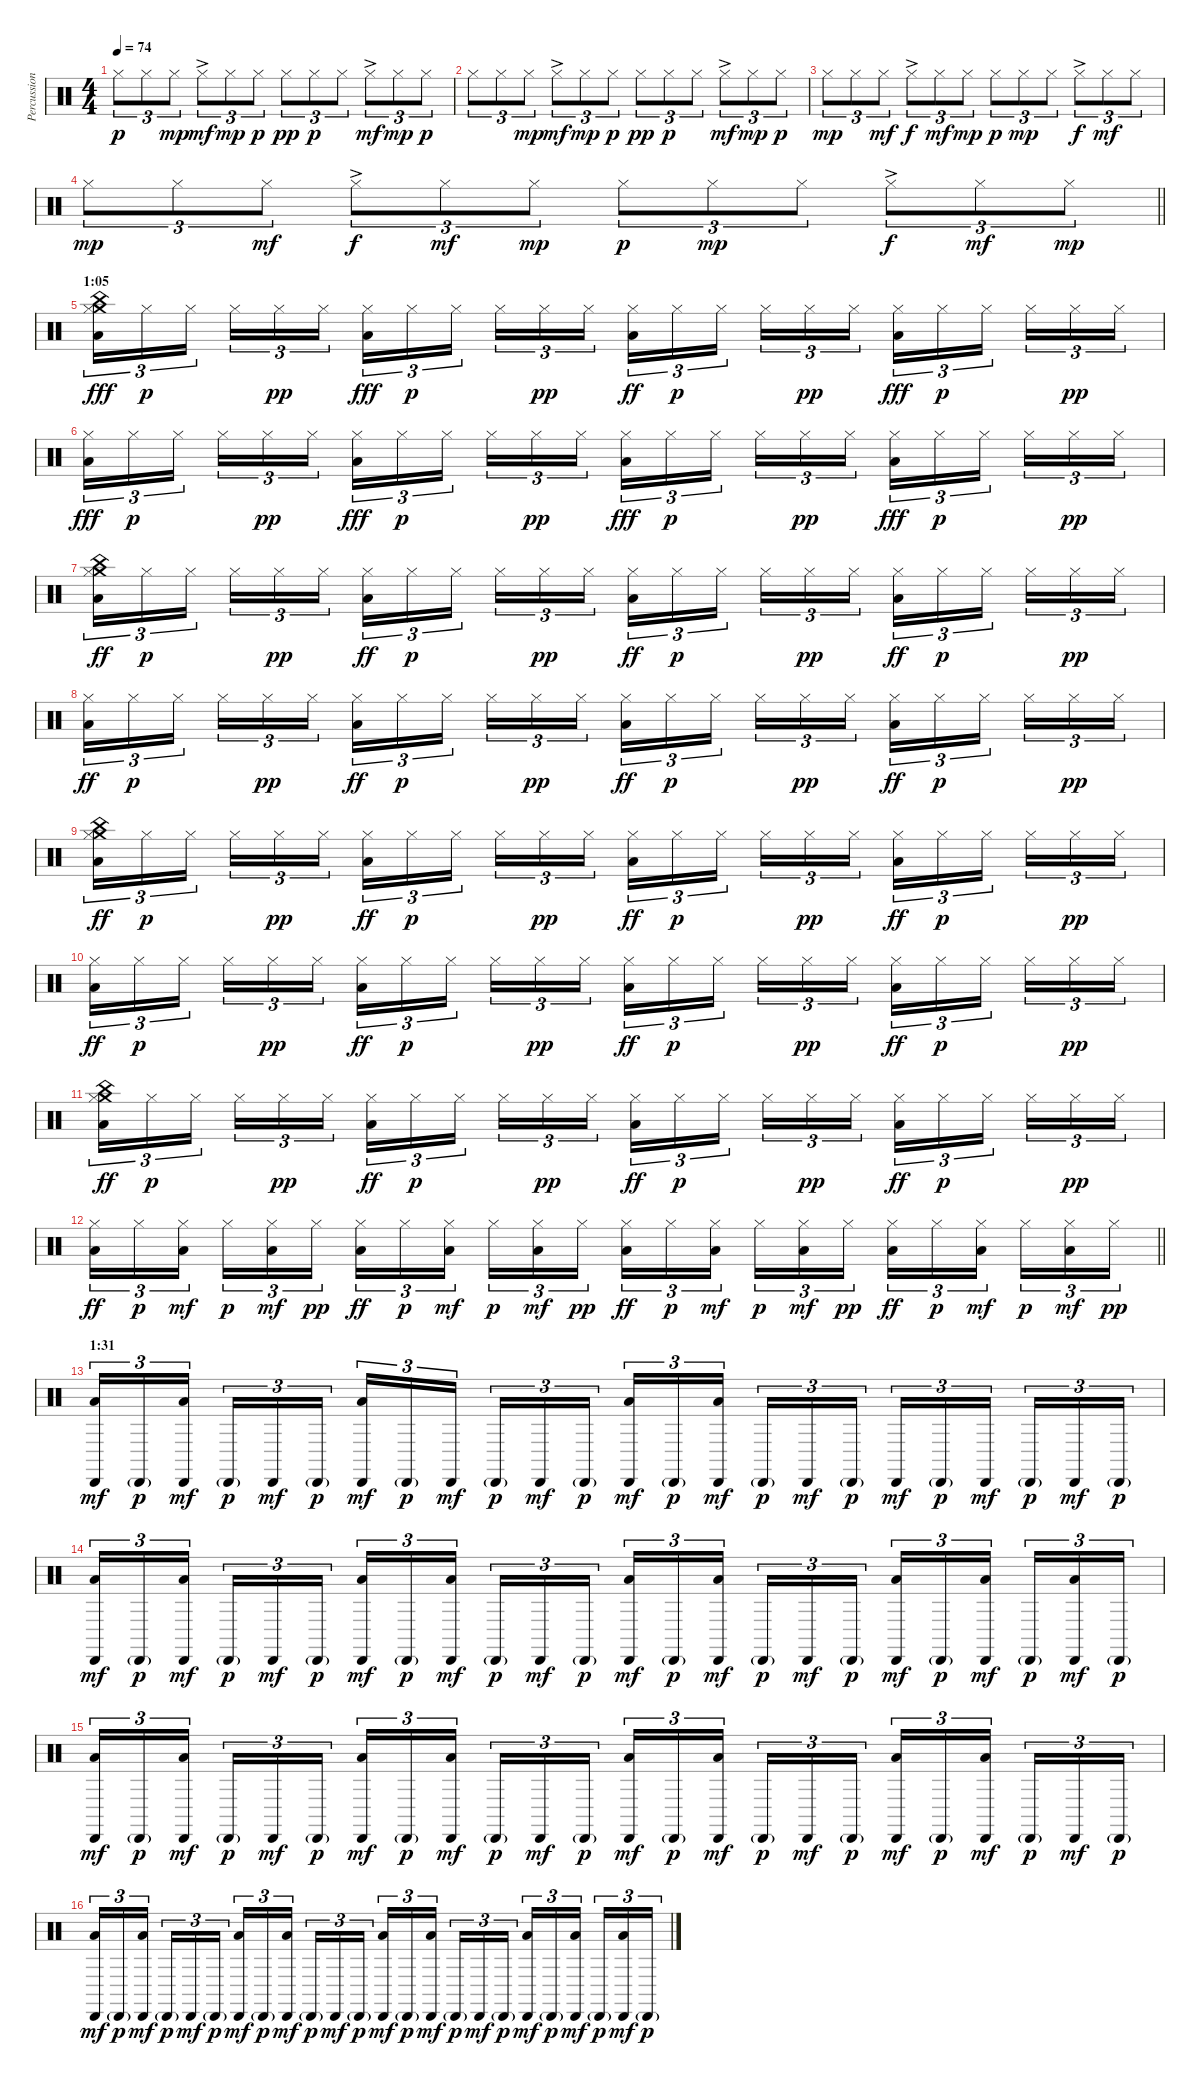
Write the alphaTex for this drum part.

\track ("Percussion" "Percussion") {instrument percussion}
\staff {score}
\articulation defaults
\ts (4 4)
\tempo 74
\clef neutral
\ks c "Hi-Hat (closed)".8{tu (3 2) dy p} "Hi-Hat (closed)".8{tu (3 2)} "Hi-Hat (closed)".8{tu (3 2) dy mp} "Hi-Hat (closed)"{ac}.8{tu (3 2) dy mf} "Hi-Hat (closed)".8{tu (3 2) dy mp} "Hi-Hat (closed)".8{tu (3 2) dy p} "Hi-Hat (closed)".8{tu (3 2) dy pp} "Hi-Hat (closed)".8{tu (3 2) dy p} "Hi-Hat (closed)".8{tu (3 2)} "Hi-Hat (closed)"{ac}.8{tu (3 2) dy mf} "Hi-Hat (closed)".8{tu (3 2) dy mp} "Hi-Hat (closed)".8{tu (3 2) dy p}
|
"Hi-Hat (closed)".8{tu (3 2)} "Hi-Hat (closed)".8{tu (3 2)} "Hi-Hat (closed)".8{tu (3 2) dy mp} "Hi-Hat (closed)"{ac}.8{tu (3 2) dy mf} "Hi-Hat (closed)".8{tu (3 2) dy mp} "Hi-Hat (closed)".8{tu (3 2) dy p} "Hi-Hat (closed)".8{tu (3 2) dy pp} "Hi-Hat (closed)".8{tu (3 2) dy p} "Hi-Hat (closed)".8{tu (3 2)} "Hi-Hat (closed)"{ac}.8{tu (3 2) dy mf} "Hi-Hat (closed)".8{tu (3 2) dy mp} "Hi-Hat (closed)".8{tu (3 2) dy p} |
"Hi-Hat (closed)".8{tu (3 2) dy mp} "Hi-Hat (closed)".8{tu (3 2)} "Hi-Hat (closed)".8{tu (3 2) dy mf} "Hi-Hat (closed)"{ac}.8{tu (3 2) dy f} "Hi-Hat (closed)".8{tu (3 2) dy mf} "Hi-Hat (closed)".8{tu (3 2) dy mp} "Hi-Hat (closed)".8{tu (3 2) dy p} "Hi-Hat (closed)".8{tu (3 2) dy mp} "Hi-Hat (closed)".8{tu (3 2)} "Hi-Hat (closed)"{ac}.8{tu (3 2) dy f} "Hi-Hat (closed)".8{tu (3 2) dy mf} "Hi-Hat (closed)".8{tu (3 2)} |
\barLineRight lightlight "Hi-Hat (closed)".8{tu (3 2) dy mp} "Hi-Hat (closed)".8{tu (3 2)} "Hi-Hat (closed)".8{tu (3 2) dy mf} "Hi-Hat (closed)"{ac}.8{tu (3 2) dy f} "Hi-Hat (closed)".8{tu (3 2) dy mf} "Hi-Hat (closed)".8{tu (3 2) dy mp} "Hi-Hat (closed)".8{tu (3 2) dy p} "Hi-Hat (closed)".8{tu (3 2) dy mp} "Hi-Hat (closed)".8{tu (3 2)} "Hi-Hat (closed)"{ac}.8{tu (3 2) dy f} "Hi-Hat (closed)".8{tu (3 2) dy mf} "Hi-Hat (closed)".8{tu (3 2) dy mp}
|
\section ("" "1:05")
("Crash medium (hit)" "China (hit)" "Hi-Hat (closed)" "Low Floor Tom (hit)").16{tu (3 2) dy fff volume 16} "Hi-Hat (closed)".16{tu (3 2) dy p} "Hi-Hat (closed)".16{tu (3 2)} "Hi-Hat (closed)".16{tu (3 2)} "Hi-Hat (closed)".16{tu (3 2) dy pp} "Hi-Hat (closed)".16{tu (3 2)} ("Hi-Hat (closed)" "Low Floor Tom (hit)").16{tu (3 2) dy fff} "Hi-Hat (closed)".16{tu (3 2) dy p} "Hi-Hat (closed)".16{tu (3 2)} "Hi-Hat (closed)".16{tu (3 2)} "Hi-Hat (closed)".16{tu (3 2) dy pp} "Hi-Hat (closed)".16{tu (3 2)} ("Hi-Hat (closed)" "Low Floor Tom (hit)").16{tu (3 2) dy ff} "Hi-Hat (closed)".16{tu (3 2) dy p} "Hi-Hat (closed)".16{tu (3 2)} "Hi-Hat (closed)".16{tu (3 2)} "Hi-Hat (closed)".16{tu (3 2) dy pp} "Hi-Hat (closed)".16{tu (3 2)} ("Hi-Hat (closed)" "Low Floor Tom (hit)").16{tu (3 2) dy fff} "Hi-Hat (closed)".16{tu (3 2) dy p} "Hi-Hat (closed)".16{tu (3 2)} "Hi-Hat (closed)".16{tu (3 2)} "Hi-Hat (closed)".16{tu (3 2) dy pp} "Hi-Hat (closed)".16{tu (3 2)} |
("Hi-Hat (closed)" "Low Floor Tom (hit)").16{tu (3 2) dy fff} "Hi-Hat (closed)".16{tu (3 2) dy p} "Hi-Hat (closed)".16{tu (3 2)} "Hi-Hat (closed)".16{tu (3 2)} "Hi-Hat (closed)".16{tu (3 2) dy pp} "Hi-Hat (closed)".16{tu (3 2)} ("Hi-Hat (closed)" "Low Floor Tom (hit)").16{tu (3 2) dy fff} "Hi-Hat (closed)".16{tu (3 2) dy p} "Hi-Hat (closed)".16{tu (3 2)} "Hi-Hat (closed)".16{tu (3 2)} "Hi-Hat (closed)".16{tu (3 2) dy pp} "Hi-Hat (closed)".16{tu (3 2)} ("Hi-Hat (closed)" "Low Floor Tom (hit)").16{tu (3 2) dy fff} "Hi-Hat (closed)".16{tu (3 2) dy p} "Hi-Hat (closed)".16{tu (3 2)} "Hi-Hat (closed)".16{tu (3 2)} "Hi-Hat (closed)".16{tu (3 2) dy pp} "Hi-Hat (closed)".16{tu (3 2)} ("Hi-Hat (closed)" "Low Floor Tom (hit)").16{tu (3 2) dy fff} "Hi-Hat (closed)".16{tu (3 2) dy p} "Hi-Hat (closed)".16{tu (3 2)} "Hi-Hat (closed)".16{tu (3 2)} "Hi-Hat (closed)".16{tu (3 2) dy pp} "Hi-Hat (closed)".16{tu (3 2)} |
("Crash medium (hit)" "China (hit)" "Hi-Hat (closed)" "Low Floor Tom (hit)").16{tu (3 2) dy ff} "Hi-Hat (closed)".16{tu (3 2) dy p} "Hi-Hat (closed)".16{tu (3 2)} "Hi-Hat (closed)".16{tu (3 2)} "Hi-Hat (closed)".16{tu (3 2) dy pp} "Hi-Hat (closed)".16{tu (3 2)} ("Hi-Hat (closed)" "Low Floor Tom (hit)").16{tu (3 2) dy ff} "Hi-Hat (closed)".16{tu (3 2) dy p} "Hi-Hat (closed)".16{tu (3 2)} "Hi-Hat (closed)".16{tu (3 2)} "Hi-Hat (closed)".16{tu (3 2) dy pp} "Hi-Hat (closed)".16{tu (3 2)} ("Hi-Hat (closed)" "Low Floor Tom (hit)").16{tu (3 2) dy ff} "Hi-Hat (closed)".16{tu (3 2) dy p} "Hi-Hat (closed)".16{tu (3 2)} "Hi-Hat (closed)".16{tu (3 2)} "Hi-Hat (closed)".16{tu (3 2) dy pp} "Hi-Hat (closed)".16{tu (3 2)} ("Hi-Hat (closed)" "Low Floor Tom (hit)").16{tu (3 2) dy ff} "Hi-Hat (closed)".16{tu (3 2) dy p} "Hi-Hat (closed)".16{tu (3 2)} "Hi-Hat (closed)".16{tu (3 2)} "Hi-Hat (closed)".16{tu (3 2) dy pp} "Hi-Hat (closed)".16{tu (3 2)} |
("Hi-Hat (closed)" "Low Floor Tom (hit)").16{tu (3 2) dy ff} "Hi-Hat (closed)".16{tu (3 2) dy p} "Hi-Hat (closed)".16{tu (3 2)} "Hi-Hat (closed)".16{tu (3 2)} "Hi-Hat (closed)".16{tu (3 2) dy pp} "Hi-Hat (closed)".16{tu (3 2)} ("Hi-Hat (closed)" "Low Floor Tom (hit)").16{tu (3 2) dy ff} "Hi-Hat (closed)".16{tu (3 2) dy p} "Hi-Hat (closed)".16{tu (3 2)} "Hi-Hat (closed)".16{tu (3 2)} "Hi-Hat (closed)".16{tu (3 2) dy pp} "Hi-Hat (closed)".16{tu (3 2)} ("Hi-Hat (closed)" "Low Floor Tom (hit)").16{tu (3 2) dy ff} "Hi-Hat (closed)".16{tu (3 2) dy p} "Hi-Hat (closed)".16{tu (3 2)} "Hi-Hat (closed)".16{tu (3 2)} "Hi-Hat (closed)".16{tu (3 2) dy pp} "Hi-Hat (closed)".16{tu (3 2)} ("Hi-Hat (closed)" "Low Floor Tom (hit)").16{tu (3 2) dy ff} "Hi-Hat (closed)".16{tu (3 2) dy p} "Hi-Hat (closed)".16{tu (3 2)} "Hi-Hat (closed)".16{tu (3 2)} "Hi-Hat (closed)".16{tu (3 2) dy pp} "Hi-Hat (closed)".16{tu (3 2)} |
("Crash medium (hit)" "China (hit)" "Hi-Hat (closed)" "Low Floor Tom (hit)").16{tu (3 2) dy ff} "Hi-Hat (closed)".16{tu (3 2) dy p} "Hi-Hat (closed)".16{tu (3 2)} "Hi-Hat (closed)".16{tu (3 2)} "Hi-Hat (closed)".16{tu (3 2) dy pp} "Hi-Hat (closed)".16{tu (3 2)} ("Hi-Hat (closed)" "Low Floor Tom (hit)").16{tu (3 2) dy ff} "Hi-Hat (closed)".16{tu (3 2) dy p} "Hi-Hat (closed)".16{tu (3 2)} "Hi-Hat (closed)".16{tu (3 2)} "Hi-Hat (closed)".16{tu (3 2) dy pp} "Hi-Hat (closed)".16{tu (3 2)} ("Hi-Hat (closed)" "Low Floor Tom (hit)").16{tu (3 2) dy ff} "Hi-Hat (closed)".16{tu (3 2) dy p} "Hi-Hat (closed)".16{tu (3 2)} "Hi-Hat (closed)".16{tu (3 2)} "Hi-Hat (closed)".16{tu (3 2) dy pp} "Hi-Hat (closed)".16{tu (3 2)} ("Hi-Hat (closed)" "Low Floor Tom (hit)").16{tu (3 2) dy ff} "Hi-Hat (closed)".16{tu (3 2) dy p} "Hi-Hat (closed)".16{tu (3 2)} "Hi-Hat (closed)".16{tu (3 2)} "Hi-Hat (closed)".16{tu (3 2) dy pp} "Hi-Hat (closed)".16{tu (3 2)} |
("Hi-Hat (closed)" "Low Floor Tom (hit)").16{tu (3 2) dy ff} "Hi-Hat (closed)".16{tu (3 2) dy p} "Hi-Hat (closed)".16{tu (3 2)} "Hi-Hat (closed)".16{tu (3 2)} "Hi-Hat (closed)".16{tu (3 2) dy pp} "Hi-Hat (closed)".16{tu (3 2)} ("Hi-Hat (closed)" "Low Floor Tom (hit)").16{tu (3 2) dy ff} "Hi-Hat (closed)".16{tu (3 2) dy p} "Hi-Hat (closed)".16{tu (3 2)} "Hi-Hat (closed)".16{tu (3 2)} "Hi-Hat (closed)".16{tu (3 2) dy pp} "Hi-Hat (closed)".16{tu (3 2)} ("Hi-Hat (closed)" "Low Floor Tom (hit)").16{tu (3 2) dy ff} "Hi-Hat (closed)".16{tu (3 2) dy p} "Hi-Hat (closed)".16{tu (3 2)} "Hi-Hat (closed)".16{tu (3 2)} "Hi-Hat (closed)".16{tu (3 2) dy pp} "Hi-Hat (closed)".16{tu (3 2)} ("Hi-Hat (closed)" "Low Floor Tom (hit)").16{tu (3 2) dy ff} "Hi-Hat (closed)".16{tu (3 2) dy p} "Hi-Hat (closed)".16{tu (3 2)} "Hi-Hat (closed)".16{tu (3 2)} "Hi-Hat (closed)".16{tu (3 2) dy pp} "Hi-Hat (closed)".16{tu (3 2)} |
("Crash medium (hit)" "China (hit)" "Hi-Hat (closed)" "Low Floor Tom (hit)").16{tu (3 2) dy ff} "Hi-Hat (closed)".16{tu (3 2) dy p} "Hi-Hat (closed)".16{tu (3 2)} "Hi-Hat (closed)".16{tu (3 2)} "Hi-Hat (closed)".16{tu (3 2) dy pp} "Hi-Hat (closed)".16{tu (3 2)} ("Hi-Hat (closed)" "Low Floor Tom (hit)").16{tu (3 2) dy ff} "Hi-Hat (closed)".16{tu (3 2) dy p} "Hi-Hat (closed)".16{tu (3 2)} "Hi-Hat (closed)".16{tu (3 2)} "Hi-Hat (closed)".16{tu (3 2) dy pp} "Hi-Hat (closed)".16{tu (3 2)} ("Hi-Hat (closed)" "Low Floor Tom (hit)").16{tu (3 2) dy ff} "Hi-Hat (closed)".16{tu (3 2) dy p} "Hi-Hat (closed)".16{tu (3 2)} "Hi-Hat (closed)".16{tu (3 2)} "Hi-Hat (closed)".16{tu (3 2) dy pp} "Hi-Hat (closed)".16{tu (3 2)} ("Hi-Hat (closed)" "Low Floor Tom (hit)").16{tu (3 2) dy ff} "Hi-Hat (closed)".16{tu (3 2) dy p} "Hi-Hat (closed)".16{tu (3 2)} "Hi-Hat (closed)".16{tu (3 2)} "Hi-Hat (closed)".16{tu (3 2) dy pp} "Hi-Hat (closed)".16{tu (3 2)} |
\barLineRight lightlight
("Hi-Hat (closed)" "Low Floor Tom (hit)").16{tu (3 2) dy ff} "Hi-Hat (closed)".16{tu (3 2) dy p} ("Hi-Hat (closed)" "Low Floor Tom (hit)").16{tu (3 2) dy mf} "Hi-Hat (closed)".16{tu (3 2) dy p} ("Hi-Hat (closed)" "Low Floor Tom (hit)").16{tu (3 2) dy mf} "Hi-Hat (closed)".16{tu (3 2) dy pp} ("Hi-Hat (closed)" "Low Floor Tom (hit)").16{tu (3 2) dy ff} "Hi-Hat (closed)".16{tu (3 2) dy p} ("Hi-Hat (closed)" "Low Floor Tom (hit)").16{tu (3 2) dy mf} "Hi-Hat (closed)".16{tu (3 2) dy p} ("Hi-Hat (closed)" "Low Floor Tom (hit)").16{tu (3 2) dy mf} "Hi-Hat (closed)".16{tu (3 2) dy pp} ("Hi-Hat (closed)" "Low Floor Tom (hit)").16{tu (3 2) dy ff} "Hi-Hat (closed)".16{tu (3 2) dy p} ("Hi-Hat (closed)" "Low Floor Tom (hit)").16{tu (3 2) dy mf} "Hi-Hat (closed)".16{tu (3 2) dy p} ("Hi-Hat (closed)" "Low Floor Tom (hit)").16{tu (3 2) dy mf} "Hi-Hat (closed)".16{tu (3 2) dy pp} ("Hi-Hat (closed)" "Low Floor Tom (hit)").16{tu (3 2) dy ff} "Hi-Hat (closed)".16{tu (3 2) dy p} ("Hi-Hat (closed)" "Low Floor Tom (hit)").16{tu (3 2) dy mf} "Hi-Hat (closed)".16{tu (3 2) dy p} ("Hi-Hat (closed)" "Low Floor Tom (hit)").16{tu (3 2) dy mf} "Hi-Hat (closed)".16{tu (3 2) dy pp} |
\section ("" "1:31 ")
("Cabasa (hit)" "Low Floor Tom (hit)").16{tu (3 2) dy mf volume 10} "Cabasa (hit)"{g}.16{tu (3 2) dy p} ("Cabasa (hit)" "Low Floor Tom (hit)").16{tu (3 2) dy mf} "Cabasa (hit)"{g}.16{tu (3 2) dy p} "Cabasa (hit)".16{tu (3 2) dy mf} "Cabasa (hit)"{g}.16{tu (3 2) dy p} ("Cabasa (hit)" "Low Floor Tom (hit)").16{tu (3 2) dy mf} "Cabasa (hit)"{g}.16{tu (3 2) dy p} "Cabasa (hit)".16{tu (3 2) dy mf} "Cabasa (hit)"{g}.16{tu (3 2) dy p} "Cabasa (hit)".16{tu (3 2) dy mf} "Cabasa (hit)"{g}.16{tu (3 2) dy p} ("Cabasa (hit)" "Low Floor Tom (hit)").16{tu (3 2) dy mf} "Cabasa (hit)"{g}.16{tu (3 2) dy p} ("Cabasa (hit)" "Low Floor Tom (hit)").16{tu (3 2) dy mf} "Cabasa (hit)"{g}.16{tu (3 2) dy p} "Cabasa (hit)".16{tu (3 2) dy mf} "Cabasa (hit)"{g}.16{tu (3 2) dy p} "Cabasa (hit)".16{tu (3 2) dy mf} "Cabasa (hit)"{g}.16{tu (3 2) dy p} "Cabasa (hit)".16{tu (3 2) dy mf} "Cabasa (hit)"{g}.16{tu (3 2) dy p} "Cabasa (hit)".16{tu (3 2) dy mf} "Cabasa (hit)"{g}.16{tu (3 2) dy p} |
("Cabasa (hit)" "Low Floor Tom (hit)").16{tu (3 2) dy mf} "Cabasa (hit)"{g}.16{tu (3 2) dy p} ("Cabasa (hit)" "Low Floor Tom (hit)").16{tu (3 2) dy mf} "Cabasa (hit)"{g}.16{tu (3 2) dy p} "Cabasa (hit)".16{tu (3 2) dy mf} "Cabasa (hit)"{g}.16{tu (3 2) dy p} ("Cabasa (hit)" "Low Floor Tom (hit)").16{tu (3 2) dy mf} "Cabasa (hit)"{g}.16{tu (3 2) dy p} ("Cabasa (hit)" "Low Floor Tom (hit)").16{tu (3 2) dy mf} "Cabasa (hit)"{g}.16{tu (3 2) dy p} "Cabasa (hit)".16{tu (3 2) dy mf} "Cabasa (hit)"{g}.16{tu (3 2) dy p} ("Cabasa (hit)" "Low Floor Tom (hit)").16{tu (3 2) dy mf} "Cabasa (hit)"{g}.16{tu (3 2) dy p} ("Cabasa (hit)" "Low Floor Tom (hit)").16{tu (3 2) dy mf} "Cabasa (hit)"{g}.16{tu (3 2) dy p} "Cabasa (hit)".16{tu (3 2) dy mf} "Cabasa (hit)"{g}.16{tu (3 2) dy p} ("Cabasa (hit)" "Low Floor Tom (hit)").16{tu (3 2) dy mf} "Cabasa (hit)"{g}.16{tu (3 2) dy p} ("Cabasa (hit)" "Low Floor Tom (hit)").16{tu (3 2) dy mf} "Cabasa (hit)"{g}.16{tu (3 2) dy p} ("Cabasa (hit)" "Low Floor Tom (hit)").16{tu (3 2) dy mf} "Cabasa (hit)"{g}.16{tu (3 2) dy p} |
("Cabasa (hit)" "Low Floor Tom (hit)").16{tu (3 2) dy mf} "Cabasa (hit)"{g}.16{tu (3 2) dy p} ("Cabasa (hit)" "Low Floor Tom (hit)").16{tu (3 2) dy mf} "Cabasa (hit)"{g}.16{tu (3 2) dy p} "Cabasa (hit)".16{tu (3 2) dy mf} "Cabasa (hit)"{g}.16{tu (3 2) dy p} ("Cabasa (hit)" "Low Floor Tom (hit)").16{tu (3 2) dy mf} "Cabasa (hit)"{g}.16{tu (3 2) dy p} ("Cabasa (hit)" "Low Floor Tom (hit)").16{tu (3 2) dy mf} "Cabasa (hit)"{g}.16{tu (3 2) dy p} "Cabasa (hit)".16{tu (3 2) dy mf} "Cabasa (hit)"{g}.16{tu (3 2) dy p} ("Cabasa (hit)" "Low Floor Tom (hit)").16{tu (3 2) dy mf} "Cabasa (hit)"{g}.16{tu (3 2) dy p} ("Cabasa (hit)" "Low Floor Tom (hit)").16{tu (3 2) dy mf} "Cabasa (hit)"{g}.16{tu (3 2) dy p} "Cabasa (hit)".16{tu (3 2) dy mf} "Cabasa (hit)"{g}.16{tu (3 2) dy p} ("Cabasa (hit)" "Low Floor Tom (hit)").16{tu (3 2) dy mf} "Cabasa (hit)"{g}.16{tu (3 2) dy p} ("Cabasa (hit)" "Low Floor Tom (hit)").16{tu (3 2) dy mf} "Cabasa (hit)"{g}.16{tu (3 2) dy p} "Cabasa (hit)".16{tu (3 2) dy mf} "Cabasa (hit)"{g}.16{tu (3 2) dy p} |
("Cabasa (hit)" "Low Floor Tom (hit)").16{tu (3 2) dy mf} "Cabasa (hit)"{g}.16{tu (3 2) dy p} ("Cabasa (hit)" "Low Floor Tom (hit)").16{tu (3 2) dy mf} "Cabasa (hit)"{g}.16{tu (3 2) dy p} "Cabasa (hit)".16{tu (3 2) dy mf} "Cabasa (hit)"{g}.16{tu (3 2) dy p} ("Cabasa (hit)" "Low Floor Tom (hit)").16{tu (3 2) dy mf} "Cabasa (hit)"{g}.16{tu (3 2) dy p} ("Cabasa (hit)" "Low Floor Tom (hit)").16{tu (3 2) dy mf} "Cabasa (hit)"{g}.16{tu (3 2) dy p} "Cabasa (hit)".16{tu (3 2) dy mf} "Cabasa (hit)"{g}.16{tu (3 2) dy p} ("Cabasa (hit)" "Low Floor Tom (hit)").16{tu (3 2) dy mf} "Cabasa (hit)"{g}.16{tu (3 2) dy p} ("Cabasa (hit)" "Low Floor Tom (hit)").16{tu (3 2) dy mf} "Cabasa (hit)"{g}.16{tu (3 2) dy p} "Cabasa (hit)".16{tu (3 2) dy mf} "Cabasa (hit)"{g}.16{tu (3 2) dy p} ("Cabasa (hit)" "Low Floor Tom (hit)").16{tu (3 2) dy mf} "Cabasa (hit)"{g}.16{tu (3 2) dy p} ("Cabasa (hit)" "Low Floor Tom (hit)").16{tu (3 2) dy mf} "Cabasa (hit)"{g}.16{tu (3 2) dy p} ("Cabasa (hit)" "Low Floor Tom (hit)").16{tu (3 2) dy mf} "Cabasa (hit)"{g}.16{tu (3 2) dy p}
